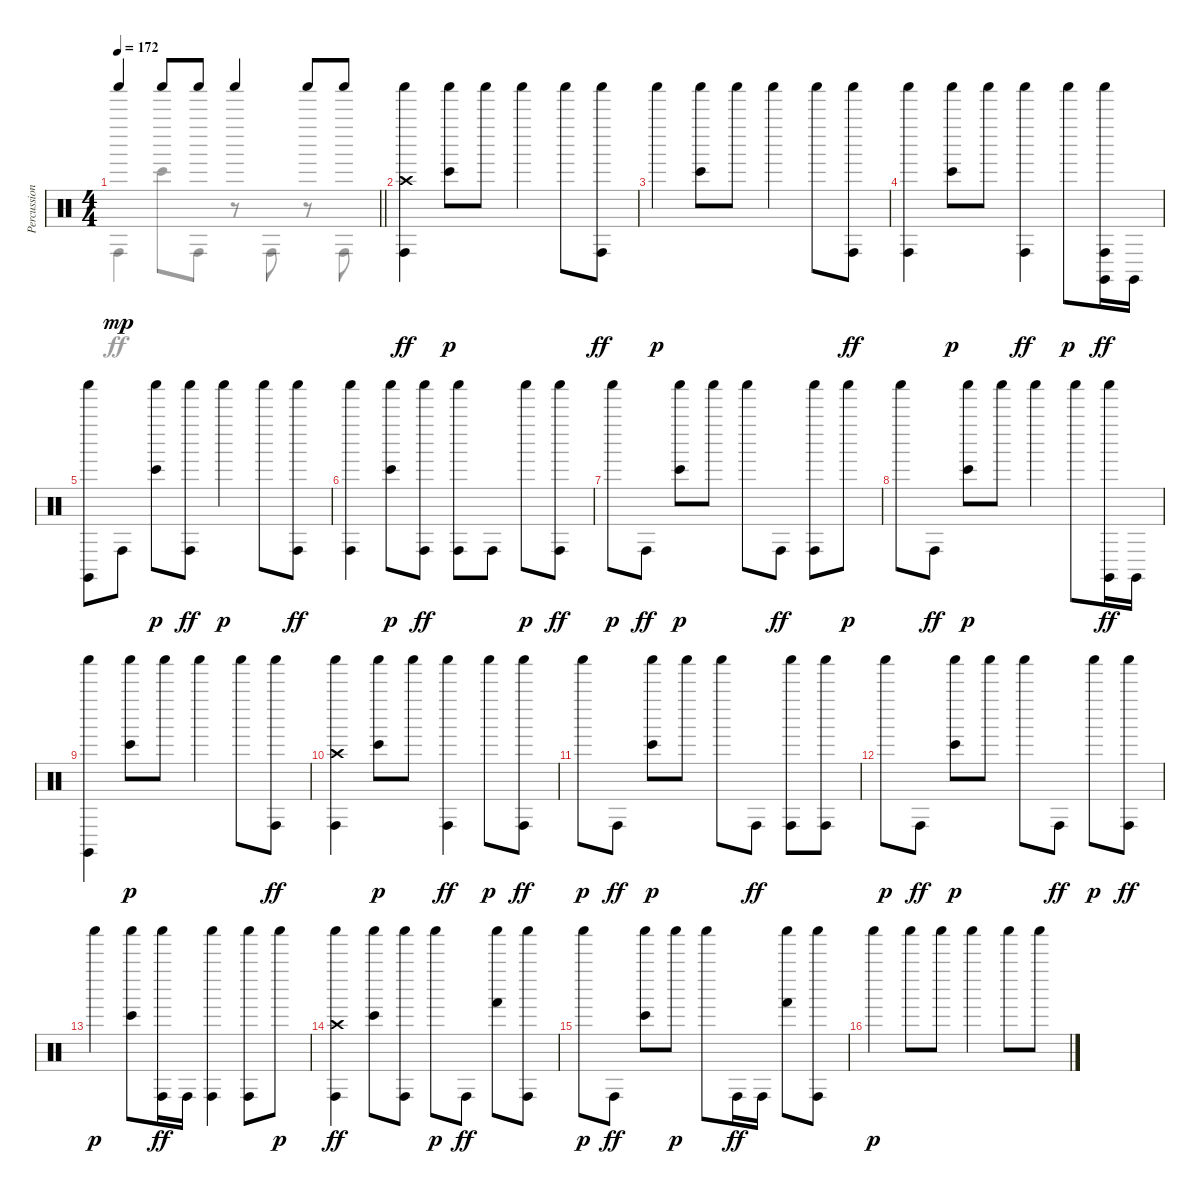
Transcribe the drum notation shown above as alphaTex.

\track ("Percussion" "Percussion") {instrument percussion}
\staff {score}
\articulation defaults
\voice
\ts (4 4)
\tempo 172
\clef neutral
\barLineRight lightlight
\ks c "Shaker (hit)".4{dy mp} "Shaker (hit)".8 "Shaker (hit)".8 "Shaker (hit)".4 "Shaker (hit)".8 "Shaker (hit)".8
|
("Shaker (hit)" "Crash high (hit)" "Conga high (hit)").4{dy ff} ("Shaker (hit)" "Bongo High (hit)").8{dy p} "Shaker (hit)".8 "Shaker (hit)".4 "Shaker (hit)".8 ("Shaker (hit)" "Conga high (hit)").8{dy ff} |
"Shaker (hit)".4{dy p} ("Shaker (hit)" "Bongo High (hit)").8 "Shaker (hit)".8 "Shaker (hit)".4 "Shaker (hit)".8 ("Shaker (hit)" "Conga high (hit)").8{dy ff} |
("Shaker (hit)" "Conga high (hit)").4 ("Shaker (hit)" "Bongo High (hit)").8{dy p} "Shaker (hit)".8 ("Shaker (hit)" "Conga high (hit)").4{dy ff} "Shaker (hit)".8{dy p} ("Shaker (hit)" "Conga high (hit)" "Claves (hit)").16{dy ff} "Claves (hit)".16 |
("Shaker (hit)" "Claves (hit)").8 "Conga high (hit)".8 ("Shaker (hit)" "Bongo High (hit)").8{dy p} ("Shaker (hit)" "Conga high (hit)").8{dy ff} "Shaker (hit)".4{dy p} "Shaker (hit)".8 ("Shaker (hit)" "Conga high (hit)").8{dy ff} |
("Shaker (hit)" "Conga high (hit)").4 ("Shaker (hit)" "Bongo High (hit)").8{dy p} ("Shaker (hit)" "Conga high (hit)").8{dy ff} ("Shaker (hit)" "Conga high (hit)").8 "Conga high (hit)".8 "Shaker (hit)".8{dy p} ("Shaker (hit)" "Conga high (hit)").8{dy ff} |
"Shaker (hit)".8{dy p} "Conga high (hit)".8{dy ff} ("Shaker (hit)" "Bongo High (hit)").8{dy p} "Shaker (hit)".8 "Shaker (hit)".8 "Conga high (hit)".8{dy ff} ("Shaker (hit)" "Conga high (hit)").8 "Shaker (hit)".8{dy p} |
"Shaker (hit)".8 "Conga high (hit)".8{dy ff} ("Shaker (hit)" "Bongo High (hit)").8{dy p} "Shaker (hit)".8 "Shaker (hit)".4 "Shaker (hit)".8 ("Shaker (hit)" "Claves (hit)").16{dy ff} "Claves (hit)".16 |
("Shaker (hit)" "Claves (hit)").4 ("Shaker (hit)" "Bongo High (hit)").8{dy p} "Shaker (hit)".8 "Shaker (hit)".4 "Shaker (hit)".8 ("Shaker (hit)" "Conga high (hit)").8{dy ff} |
("Shaker (hit)" "Crash high (hit)" "Conga high (hit)").4 ("Shaker (hit)" "Bongo High (hit)").8{dy p} "Shaker (hit)".8 ("Shaker (hit)" "Conga high (hit)").4{dy ff} "Shaker (hit)".8{dy p} ("Shaker (hit)" "Conga high (hit)").8{dy ff} |
"Shaker (hit)".8{dy p} "Conga high (hit)".8{dy ff} ("Shaker (hit)" "Bongo High (hit)").8{dy p} "Shaker (hit)".8 "Shaker (hit)".8 "Conga high (hit)".8{dy ff} ("Shaker (hit)" "Conga high (hit)").8 ("Shaker (hit)" "Conga high (hit)").8 |
"Shaker (hit)".8{dy p} "Conga high (hit)".8{dy ff} ("Shaker (hit)" "Bongo High (hit)").8{dy p} "Shaker (hit)".8 "Shaker (hit)".8 "Conga high (hit)".8{dy ff} "Shaker (hit)".8{dy p} ("Shaker (hit)" "Conga high (hit)").8{dy ff} |
"Shaker (hit)".4{dy p} ("Shaker (hit)" "Bongo High (hit)").8 ("Shaker (hit)" "Conga high (hit)").16{dy ff} "Conga high (hit)".16 ("Shaker (hit)" "Conga high (hit)").4 ("Shaker (hit)" "Conga high (hit)").8 "Shaker (hit)".8{dy p} |
("Shaker (hit)" "Crash high (hit)" "Conga high (hit)").4{dy ff} ("Shaker (hit)" "Bongo High (hit)").8 ("Shaker (hit)" "Conga high (hit)").8 "Shaker (hit)".8{dy p} "Conga high (hit)".8{dy ff} ("Shaker (hit)" "Hand (hit)").8 ("Shaker (hit)" "Conga high (hit)").8 |
"Shaker (hit)".8{dy p} "Conga high (hit)".8{dy ff} ("Shaker (hit)" "Bongo High (hit)").8 "Shaker (hit)".8{dy p} "Shaker (hit)".8 "Conga high (hit)".16{dy ff} "Conga high (hit)".16 ("Shaker (hit)" "Hand (hit)").8 ("Shaker (hit)" "Conga high (hit)").8 |
"Shaker (hit)".4{dy p} "Shaker (hit)".8 "Shaker (hit)".8 "Shaker (hit)".4 "Shaker (hit)".8 "Shaker (hit)".8
\voice
\clef neutral
\ottava regular
\simile none
\barLineRight lightlight
\ks c "Conga high (hit)".4{dy ff} "Bongo High (hit)".8 "Conga high (hit)".8
r.8 "Conga high (hit)".8 r.8 "Conga high (hit)".8 |
|
|
|
|
|
|
|
|
|
|
|
|
|
|
